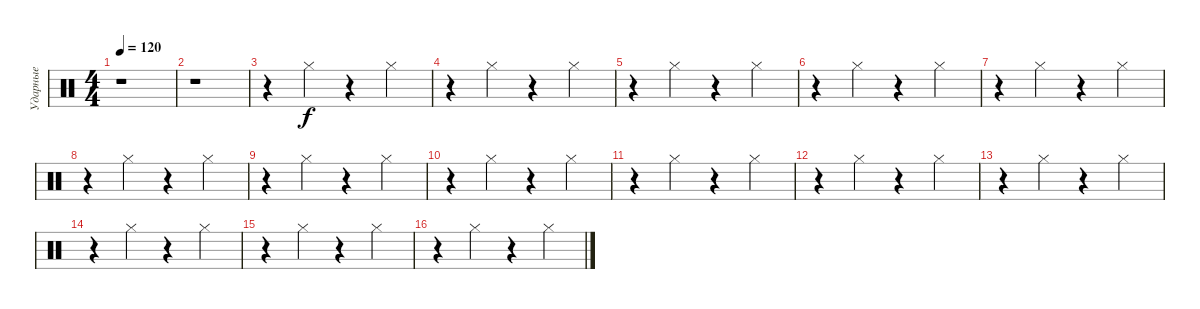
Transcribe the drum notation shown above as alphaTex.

\track ("Ударные" "Ударные") {instrument percussion}
\staff {score}
\articulation defaults
\ts (4 4)
\tempo 120
\clef neutral
\ks c
r.1{dy f} |
r.1 |
r.4 "Hi-Hat (closed)".4 r.4 "Hi-Hat (closed)".4 |
r.4 "Hi-Hat (closed)".4 r.4 "Hi-Hat (closed)".4 |
r.4 "Hi-Hat (closed)".4 r.4 "Hi-Hat (closed)".4 |
r.4 "Hi-Hat (closed)".4 r.4 "Hi-Hat (closed)".4 |
r.4 "Hi-Hat (closed)".4 r.4 "Hi-Hat (closed)".4 |
r.4 "Hi-Hat (closed)".4 r.4 "Hi-Hat (closed)".4 |
r.4 "Hi-Hat (closed)".4 r.4 "Hi-Hat (closed)".4 |
r.4 "Hi-Hat (closed)".4 r.4 "Hi-Hat (closed)".4 |
r.4 "Hi-Hat (closed)".4 r.4 "Hi-Hat (closed)".4 |
r.4 "Hi-Hat (closed)".4 r.4 "Hi-Hat (closed)".4 |
r.4 "Hi-Hat (closed)".4 r.4 "Hi-Hat (closed)".4 |
r.4 "Hi-Hat (closed)".4 r.4 "Hi-Hat (closed)".4 |
r.4 "Hi-Hat (closed)".4 r.4 "Hi-Hat (closed)".4 |
r.4 "Hi-Hat (closed)".4 r.4 "Hi-Hat (closed)".4
